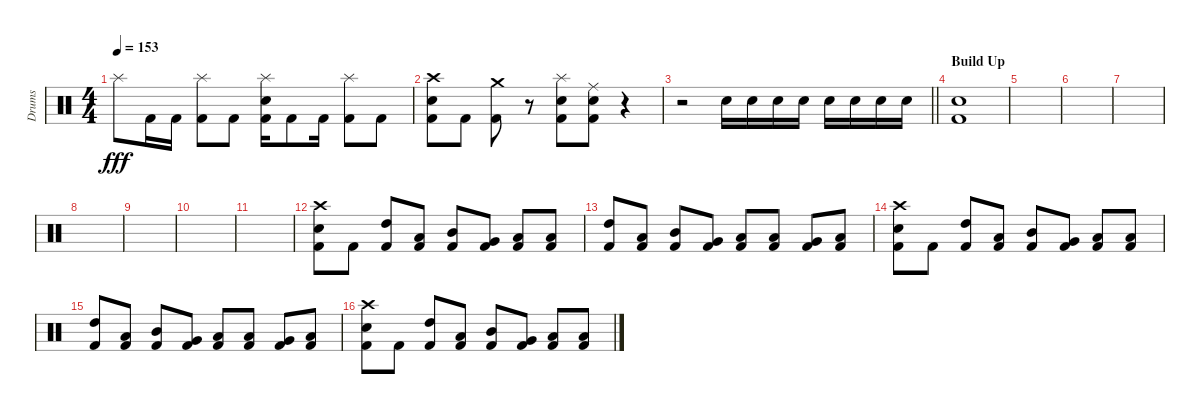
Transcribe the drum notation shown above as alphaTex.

\track ("Drums" "Drums") {instrument percussion}
\staff {score}
\articulation defaults
\ts (4 4)
\tempo 153
\clef neutral
\ks c "Splash (hit)".8{dy fff} "Kick (hit) 2".16 "Kick (hit) 2".16
("Splash (hit)" "Kick (hit) 2").8 "Kick (hit) 2".8 ("Snare (hit) 2" "Splash (hit)" "Kick (hit) 2").16 "Kick (hit) 2".8 "Kick (hit) 2".16 ("Splash (hit)" "Kick (hit) 2").8 "Kick (hit) 2".8 |
("Crash high (hit)" "Snare (hit) 2" "Kick (hit) 2").8 "Kick (hit) 2".8 ("Crash medium (hit)" "Kick (hit) 2").8 r.8 ("Snare (hit) 2" "Splash (hit)" "Kick (hit) 2").8 ("Snare (hit) 2" "Ride (middle)" "Kick (hit) 2").8 r.4 |
\barLineRight lightlight
r.2 "Snare (hit) 2".16 "Snare (hit) 2".16 "Snare (hit) 2".16 "Snare (hit) 2".16 "Snare (hit) 2".16 "Snare (hit) 2".16 "Snare (hit) 2".16 "Snare (hit) 2".16 |
\section ("" "Build Up")
("Snare (hit) 2" "Kick (hit) 2").1 |
|
|
|
|
|
|
|
("Crash high (hit)" "Snare (hit) 2" "Kick (hit) 2").8 "Kick (hit) 2".8 ("High Tom (hit)" "Kick (hit) 2").8 ("Low Tom (hit)" "Kick (hit) 2").8 ("Mid Tom (hit)" "Kick (hit) 2").8 ("Very Low Tom (hit)" "Kick (hit) 2").8 ("Low Tom (hit)" "Kick (hit) 2").8 ("Low Floor Tom (hit)" "Kick (hit) 2").8 |
("High Tom (hit)" "Kick (hit) 2").8 ("Low Tom (hit)" "Kick (hit) 2").8 ("Mid Tom (hit)" "Kick (hit) 2").8 ("Very Low Tom (hit)" "Kick (hit) 2").8 ("Low Tom (hit)" "Kick (hit) 2").8 ("Low Floor Tom (hit)" "Kick (hit) 2").8 ("Very Low Tom (hit)" "Kick (hit) 2").8 ("Low Floor Tom (hit)" "Kick (hit) 2").8 |
("Crash high (hit)" "Snare (hit) 2" "Kick (hit) 2").8 "Kick (hit) 2".8 ("High Tom (hit)" "Kick (hit) 2").8 ("Low Tom (hit)" "Kick (hit) 2").8 ("Mid Tom (hit)" "Kick (hit) 2").8 ("Very Low Tom (hit)" "Kick (hit) 2").8 ("Low Tom (hit)" "Kick (hit) 2").8 ("Low Floor Tom (hit)" "Kick (hit) 2").8 |
("High Tom (hit)" "Kick (hit) 2").8 ("Low Tom (hit)" "Kick (hit) 2").8 ("Mid Tom (hit)" "Kick (hit) 2").8 ("Very Low Tom (hit)" "Kick (hit) 2").8 ("Low Tom (hit)" "Kick (hit) 2").8 ("Low Floor Tom (hit)" "Kick (hit) 2").8 ("Very Low Tom (hit)" "Kick (hit) 2").8 ("Low Floor Tom (hit)" "Kick (hit) 2").8 |
("Crash high (hit)" "Snare (hit) 2" "Kick (hit) 2").8 "Kick (hit) 2".8 ("High Tom (hit)" "Kick (hit) 2").8 ("Low Tom (hit)" "Kick (hit) 2").8 ("Mid Tom (hit)" "Kick (hit) 2").8 ("Very Low Tom (hit)" "Kick (hit) 2").8 ("Low Tom (hit)" "Kick (hit) 2").8 ("Low Floor Tom (hit)" "Kick (hit) 2").8
